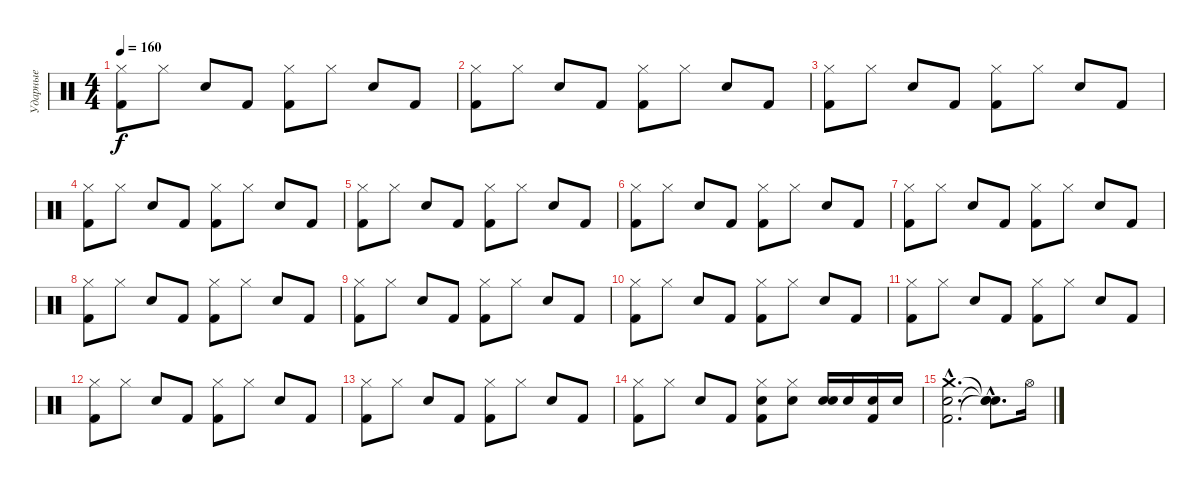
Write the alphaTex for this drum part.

\track ("Ударные" "Ударные") {instrument percussion}
\staff {score}
\articulation defaults
\ts (4 4)
\tempo 160
\clef neutral
\ks c
("Hi-Hat (closed)" "Kick (hit) 2").8{dy f} "Hi-Hat (closed)".8 "Snare (hit) 2".8 "Kick (hit) 2".8 ("Hi-Hat (closed)" "Kick (hit) 2").8 "Hi-Hat (closed)".8 "Snare (hit) 2".8 "Kick (hit) 2".8 |
("Hi-Hat (closed)" "Kick (hit) 2").8 "Hi-Hat (closed)".8 "Snare (hit) 2".8 "Kick (hit) 2".8 ("Hi-Hat (closed)" "Kick (hit) 2").8 "Hi-Hat (closed)".8 "Snare (hit) 2".8 "Kick (hit) 2".8 |
("Hi-Hat (closed)" "Kick (hit) 2").8 "Hi-Hat (closed)".8 "Snare (hit) 2".8 "Kick (hit) 2".8 ("Hi-Hat (closed)" "Kick (hit) 2").8 "Hi-Hat (closed)".8 "Snare (hit) 2".8 "Kick (hit) 2".8 |
("Hi-Hat (closed)" "Kick (hit) 2").8 "Hi-Hat (closed)".8 "Snare (hit) 2".8 "Kick (hit) 2".8 ("Hi-Hat (closed)" "Kick (hit) 2").8 "Hi-Hat (closed)".8 "Snare (hit) 2".8 "Kick (hit) 2".8 |
("Hi-Hat (closed)" "Kick (hit) 2").8 "Hi-Hat (closed)".8 "Snare (hit) 2".8 "Kick (hit) 2".8 ("Hi-Hat (closed)" "Kick (hit) 2").8 "Hi-Hat (closed)".8 "Snare (hit) 2".8 "Kick (hit) 2".8 |
("Hi-Hat (closed)" "Kick (hit) 2").8 "Hi-Hat (closed)".8 "Snare (hit) 2".8 "Kick (hit) 2".8 ("Hi-Hat (closed)" "Kick (hit) 2").8 "Hi-Hat (closed)".8 "Snare (hit) 2".8 "Kick (hit) 2".8 |
("Hi-Hat (closed)" "Kick (hit) 2").8 "Hi-Hat (closed)".8 "Snare (hit) 2".8 "Kick (hit) 2".8 ("Hi-Hat (closed)" "Kick (hit) 2").8 "Hi-Hat (closed)".8 "Snare (hit) 2".8 "Kick (hit) 2".8 |
("Hi-Hat (closed)" "Kick (hit) 2").8 "Hi-Hat (closed)".8 "Snare (hit) 2".8 "Kick (hit) 2".8 ("Hi-Hat (closed)" "Kick (hit) 2").8 "Hi-Hat (closed)".8 "Snare (hit) 2".8 "Kick (hit) 2".8 |
("Hi-Hat (closed)" "Kick (hit) 2").8 "Hi-Hat (closed)".8 "Snare (hit) 2".8 "Kick (hit) 2".8 ("Hi-Hat (closed)" "Kick (hit) 2").8 "Hi-Hat (closed)".8 "Snare (hit) 2".8 "Kick (hit) 2".8 |
("Hi-Hat (closed)" "Kick (hit) 2").8 "Hi-Hat (closed)".8 "Snare (hit) 2".8 "Kick (hit) 2".8 ("Hi-Hat (closed)" "Kick (hit) 2").8 "Hi-Hat (closed)".8 "Snare (hit) 2".8 "Kick (hit) 2".8 |
("Hi-Hat (closed)" "Kick (hit) 2").8 "Hi-Hat (closed)".8 "Snare (hit) 2".8 "Kick (hit) 2".8 ("Hi-Hat (closed)" "Kick (hit) 2").8 "Hi-Hat (closed)".8 "Snare (hit) 2".8 "Kick (hit) 2".8 |
("Hi-Hat (closed)" "Kick (hit) 2").8 "Hi-Hat (closed)".8 "Snare (hit) 2".8 "Kick (hit) 2".8 ("Hi-Hat (closed)" "Kick (hit) 2").8 "Hi-Hat (closed)".8 "Snare (hit) 2".8 "Kick (hit) 2".8 |
("Hi-Hat (closed)" "Kick (hit) 2").8 "Hi-Hat (closed)".8 "Snare (hit) 2".8 "Kick (hit) 2".8 ("Hi-Hat (closed)" "Kick (hit) 2").8 "Hi-Hat (closed)".8 "Snare (hit) 2".8 "Kick (hit) 2".8 |
("Hi-Hat (closed)" "Kick (hit) 2").8 "Hi-Hat (closed)".8 "Snare (hit) 2".8 "Kick (hit) 2".8 ("Hi-Hat (closed)" "Kick (hit) 2" "Snare (hit) 2").8 ("Hi-Hat (closed)" "Snare (hit) 2").8 ("Snare (hit) 2" "Snare (hit) 2").16 "Snare (hit) 2".16 ("Kick (hit) 2" "Snare (hit) 2").16 "Snare (hit) 2".16 |
("Kick (hit) 2"{hac} "Snare (hit) 2"{hac} "Crash medium (hit)"{hac}).2{d} ("Snare (hit)"{hac t} "Snare (hit)"{hac t} "Snare (hit)"{hac t}).8{d} "Hi-Hat (open)".16
